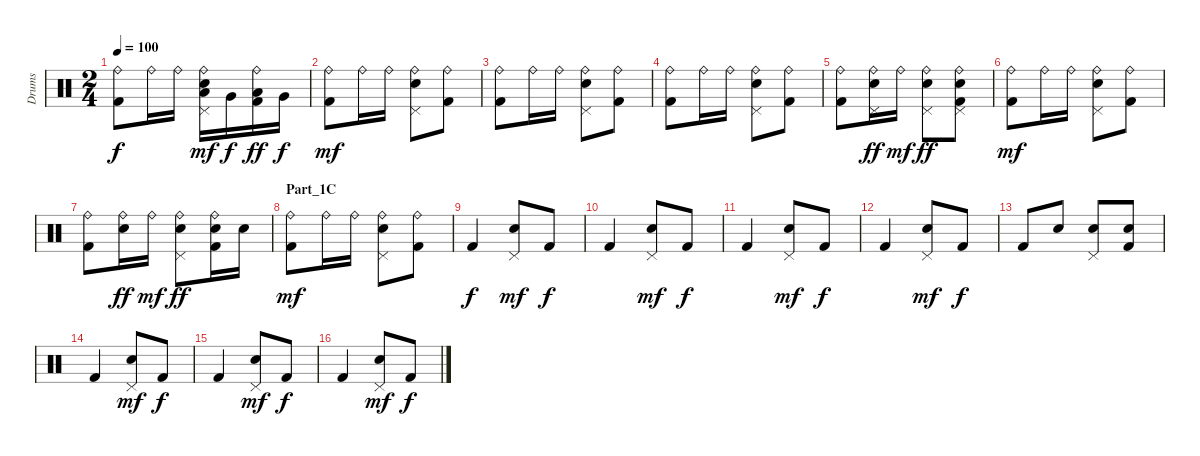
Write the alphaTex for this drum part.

\track ("Drums" "Drums") {instrument percussion}
\staff {score}
\articulation defaults
\ts (2 4)
\tempo 100
\clef neutral
\ks c
("Ride (bell)" "Kick (hit) 2").8{dy f} "Ride (bell)".16 "Ride (bell)".16 ("Ride (bell)" "Pedal Hi-Hat (hit)" "Low Floor Tom (hit)" "Electric Snare (hit)").16{dy mf} "Very Low Tom (hit)".16{dy f} ("Ride (bell)" "Low Floor Tom (hit)" "Kick (hit) 2").16{dy ff} "Very Low Tom (hit)".16{dy f} |
("Ride (bell)" "Kick (hit) 2").8{dy mf} "Ride (bell)".16 "Ride (bell)".16 ("Ride (bell)" "Pedal Hi-Hat (hit)" "Electric Snare (hit)").8 ("Ride (bell)" "Kick (hit) 2").8 |
("Ride (bell)" "Kick (hit) 2").8 "Ride (bell)".16 "Ride (bell)".16 ("Ride (bell)" "Pedal Hi-Hat (hit)" "Electric Snare (hit)").8 ("Ride (bell)" "Kick (hit) 2").8 |
("Ride (bell)" "Kick (hit) 2").8 "Ride (bell)".16 "Ride (bell)".16 ("Ride (bell)" "Pedal Hi-Hat (hit)" "Electric Snare (hit)").8 ("Ride (bell)" "Kick (hit) 2").8 |
("Ride (bell)" "Kick (hit) 2").8 ("Ride (bell)" "Pedal Hi-Hat (hit)" "Electric Snare (hit)").16{dy ff} "Ride (bell)".16{dy mf} ("Ride (bell)" "Pedal Hi-Hat (hit)" "Electric Snare (hit)").8{dy ff} ("Ride (bell)" "Pedal Hi-Hat (hit)" "Electric Snare (hit)" "Kick (hit) 2").8 |
("Ride (bell)" "Kick (hit) 2").8{dy mf} "Ride (bell)".16 "Ride (bell)".16 ("Ride (bell)" "Pedal Hi-Hat (hit)" "Electric Snare (hit)").8 ("Ride (bell)" "Kick (hit) 2").8 |
("Ride (bell)" "Kick (hit) 2").8 ("Ride (bell)" "Electric Snare (hit)").16{dy ff} "Ride (bell)".16{dy mf} ("Ride (bell)" "Pedal Hi-Hat (hit)" "Electric Snare (hit)").8{dy ff} ("Ride (bell)" "Electric Snare (hit)" "Kick (hit) 2").16 "Electric Snare (hit)".16 |
\section ("" "Part_1C")
("Ride (bell)" "Kick (hit) 2").8{dy mf} "Ride (bell)".16 "Ride (bell)".16 ("Ride (bell)" "Pedal Hi-Hat (hit)" "Electric Snare (hit)").8 ("Ride (bell)" "Kick (hit) 2").8 |
"Kick (hit) 2".4{dy f} ("Pedal Hi-Hat (hit)" "Electric Snare (hit)").8{dy mf} "Kick (hit) 2".8{dy f} |
"Kick (hit) 2".4 ("Pedal Hi-Hat (hit)" "Electric Snare (hit)").8{dy mf} "Kick (hit) 2".8{dy f} |
"Kick (hit) 2".4 ("Pedal Hi-Hat (hit)" "Electric Snare (hit)").8{dy mf} "Kick (hit) 2".8{dy f} |
"Kick (hit) 2".4 ("Pedal Hi-Hat (hit)" "Electric Snare (hit)").8{dy mf} "Kick (hit) 2".8{dy f} |
"Kick (hit) 2".8 "Electric Snare (hit)".8 ("Pedal Hi-Hat (hit)" "Electric Snare (hit)").8 ("Electric Snare (hit)" "Kick (hit) 2").8 |
"Kick (hit) 2".4 ("Pedal Hi-Hat (hit)" "Electric Snare (hit)").8{dy mf} "Kick (hit) 2".8{dy f} |
"Kick (hit) 2".4 ("Pedal Hi-Hat (hit)" "Electric Snare (hit)").8{dy mf} "Kick (hit) 2".8{dy f} |
"Kick (hit) 2".4 ("Pedal Hi-Hat (hit)" "Electric Snare (hit)").8{dy mf} "Kick (hit) 2".8{dy f}
